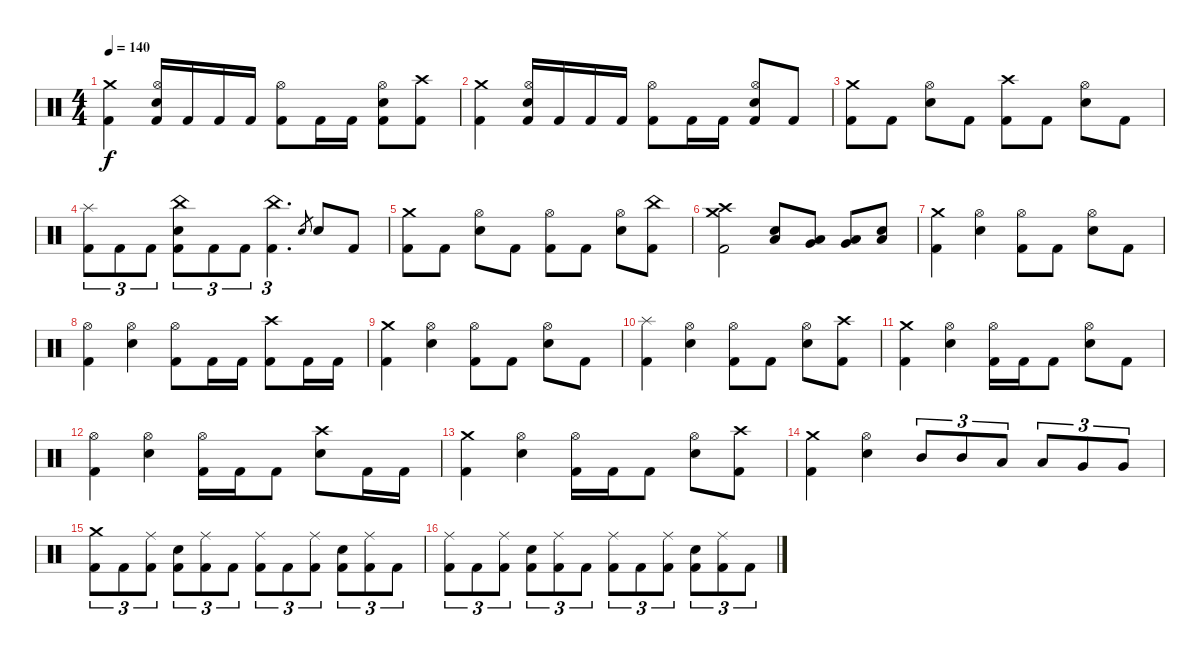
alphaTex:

\track "" {instrument percussion}
\staff {score}
\articulation defaults
\ts (4 4)
\tempo 140
\clef neutral
\ks c
("Crash medium (hit)" "Kick (hit) 2").4{dy f} ("Hi-Hat (open)" "Electric Snare (hit)" "Kick (hit) 2").16 "Kick (hit) 2".16 "Kick (hit) 2".16 "Kick (hit) 2".16 ("Hi-Hat (open)" "Kick (hit) 2").8 "Kick (hit) 2".16 "Kick (hit) 2".16 ("Hi-Hat (open)" "Electric Snare (hit)" "Kick (hit) 2").8 ("Crash high (hit)" "Kick (hit) 2").8 |
("Crash medium (hit)" "Kick (hit) 2").4 ("Hi-Hat (open)" "Electric Snare (hit)" "Kick (hit) 2").16 "Kick (hit) 2".16 "Kick (hit) 2".16 "Kick (hit) 2".16 ("Hi-Hat (open)" "Kick (hit) 2").8 "Kick (hit) 2".16 "Kick (hit) 2".16 ("Hi-Hat (open)" "Electric Snare (hit)" "Kick (hit) 2").8 "Kick (hit) 2".8 |
("Crash medium (hit)" "Kick (hit) 2").8 "Kick (hit) 2".8 ("Hi-Hat (open)" "Electric Snare (hit)").8 "Kick (hit) 2".8 ("Crash high (hit)" "Kick (hit) 2").8 "Kick (hit) 2".8 ("Hi-Hat (open)" "Electric Snare (hit)").8 "Kick (hit) 2".8 |
("Splash (hit)" "Kick (hit) 2").8{tu (3 2)} "Kick (hit) 2".8{tu (3 2)} "Kick (hit) 2".8{tu (3 2)} ("China (hit)" "Electric Snare (hit)" "Kick (hit) 2").8{tu (3 2)} "Kick (hit) 2".8{tu (3 2)} "Kick (hit) 2".8{tu (3 2)} ("China (hit)" "Kick (hit) 2").4{d tu (3 2)} "Electric Snare (hit)".8{gr} "Electric Snare (hit)".8 "Kick (hit) 2".8 |
("Crash medium (hit)" "Kick (hit) 2").8 "Kick (hit) 2".8 ("Hi-Hat (open)" "Electric Snare (hit)").8 "Kick (hit) 2".8 ("Hi-Hat (open)" "Kick (hit) 2").8 "Kick (hit) 2".8 ("Hi-Hat (open)" "Electric Snare (hit)").8 ("China (hit)" "Kick (hit) 2").8 |
("Crash medium (hit)" "Crash high (hit)" "Kick (hit) 2").2 ("Low Tom (hit)" "Electric Snare (hit)").8 ("Low Tom (hit)" "Very Low Tom (hit)").8 ("Very Low Tom (hit)" "Low Floor Tom (hit)").8 ("Electric Snare (hit)" "Low Floor Tom (hit)").8 |
("Crash medium (hit)" "Kick (hit) 2").4 ("Hi-Hat (open)" "Electric Snare (hit)").4 ("Hi-Hat (open)" "Kick (hit) 2").8 "Kick (hit) 2".8 ("Hi-Hat (open)" "Electric Snare (hit)").8 "Kick (hit) 2".8 |
("Hi-Hat (open)" "Kick (hit) 2").4 ("Hi-Hat (open)" "Electric Snare (hit)").4 ("Hi-Hat (open)" "Kick (hit) 2").8 "Kick (hit) 2".16 "Kick (hit) 2".16 ("Crash high (hit)" "Kick (hit) 2").8 "Kick (hit) 2".16 "Kick (hit) 2".16 |
("Crash medium (hit)" "Kick (hit) 2").4 ("Hi-Hat (open)" "Electric Snare (hit)").4 ("Hi-Hat (open)" "Kick (hit) 2").8 "Kick (hit) 2".8 ("Hi-Hat (open)" "Electric Snare (hit)").8 "Kick (hit) 2".8 |
("Splash (hit)" "Kick (hit) 2").4 ("Hi-Hat (open)" "Electric Snare (hit)").4 ("Hi-Hat (open)" "Kick (hit) 2").8 "Kick (hit) 2".8 ("Hi-Hat (open)" "Electric Snare (hit)").8 ("Crash high (hit)" "Kick (hit) 2").8 |
("Crash medium (hit)" "Kick (hit) 2").4 ("Hi-Hat (open)" "Electric Snare (hit)").4 ("Hi-Hat (open)" "Kick (hit) 2").16 "Kick (hit) 2".16 "Kick (hit) 2".8 ("Hi-Hat (open)" "Electric Snare (hit)").8 "Kick (hit) 2".8 |
("Hi-Hat (open)" "Kick (hit) 2").4 ("Hi-Hat (open)" "Electric Snare (hit)").4 ("Hi-Hat (open)" "Kick (hit) 2").16 "Kick (hit) 2".16 "Kick (hit) 2".8 ("Crash high (hit)" "Electric Snare (hit)").8 "Kick (hit) 2".16 "Kick (hit) 2".16 |
("Crash medium (hit)" "Kick (hit) 2").4 ("Hi-Hat (open)" "Electric Snare (hit)").4 ("Hi-Hat (open)" "Kick (hit) 2").16 "Kick (hit) 2".16 "Kick (hit) 2".8 ("Hi-Hat (open)" "Electric Snare (hit)").8 ("Crash high (hit)" "Kick (hit) 2").8 |
("Crash medium (hit)" "Kick (hit) 2").4 ("Hi-Hat (open)" "Electric Snare (hit)").4 "Mid Tom (hit)".8{tu (3 2)} "Mid Tom (hit)".8{tu (3 2)} "Low Tom (hit)".8{tu (3 2)} "Low Tom (hit)".8{tu (3 2)} "Very Low Tom (hit)".8{tu (3 2)} "Very Low Tom (hit)".8{tu (3 2)} |
("Crash medium (hit)" "Kick (hit) 2").8{tu (3 2)} "Kick (hit) 2".8{tu (3 2)} ("Ride (middle)" "Kick (hit) 2").8{tu (3 2)} ("Electric Snare (hit)" "Kick (hit) 2").8{tu (3 2)} ("Ride (middle)" "Kick (hit) 2").8{tu (3 2)} "Kick (hit) 2".8{tu (3 2)} ("Ride (middle)" "Kick (hit) 2").8{tu (3 2)} "Kick (hit) 2".8{tu (3 2)} ("Ride (middle)" "Kick (hit) 2").8{tu (3 2)} ("Electric Snare (hit)" "Kick (hit) 2").8{tu (3 2)} ("Ride (middle)" "Kick (hit) 2").8{tu (3 2)} "Kick (hit) 2".8{tu (3 2)} |
("Ride (middle)" "Kick (hit) 2").8{tu (3 2)} "Kick (hit) 2".8{tu (3 2)} ("Ride (middle)" "Kick (hit) 2").8{tu (3 2)} ("Electric Snare (hit)" "Kick (hit) 2").8{tu (3 2)} ("Ride (middle)" "Kick (hit) 2").8{tu (3 2)} "Kick (hit) 2".8{tu (3 2)} ("Ride (middle)" "Kick (hit) 2").8{tu (3 2)} "Kick (hit) 2".8{tu (3 2)} ("Ride (middle)" "Kick (hit) 2").8{tu (3 2)} ("Electric Snare (hit)" "Kick (hit) 2").8{tu (3 2)} ("Ride (middle)" "Kick (hit) 2").8{tu (3 2)} "Kick (hit) 2".8{tu (3 2)}
